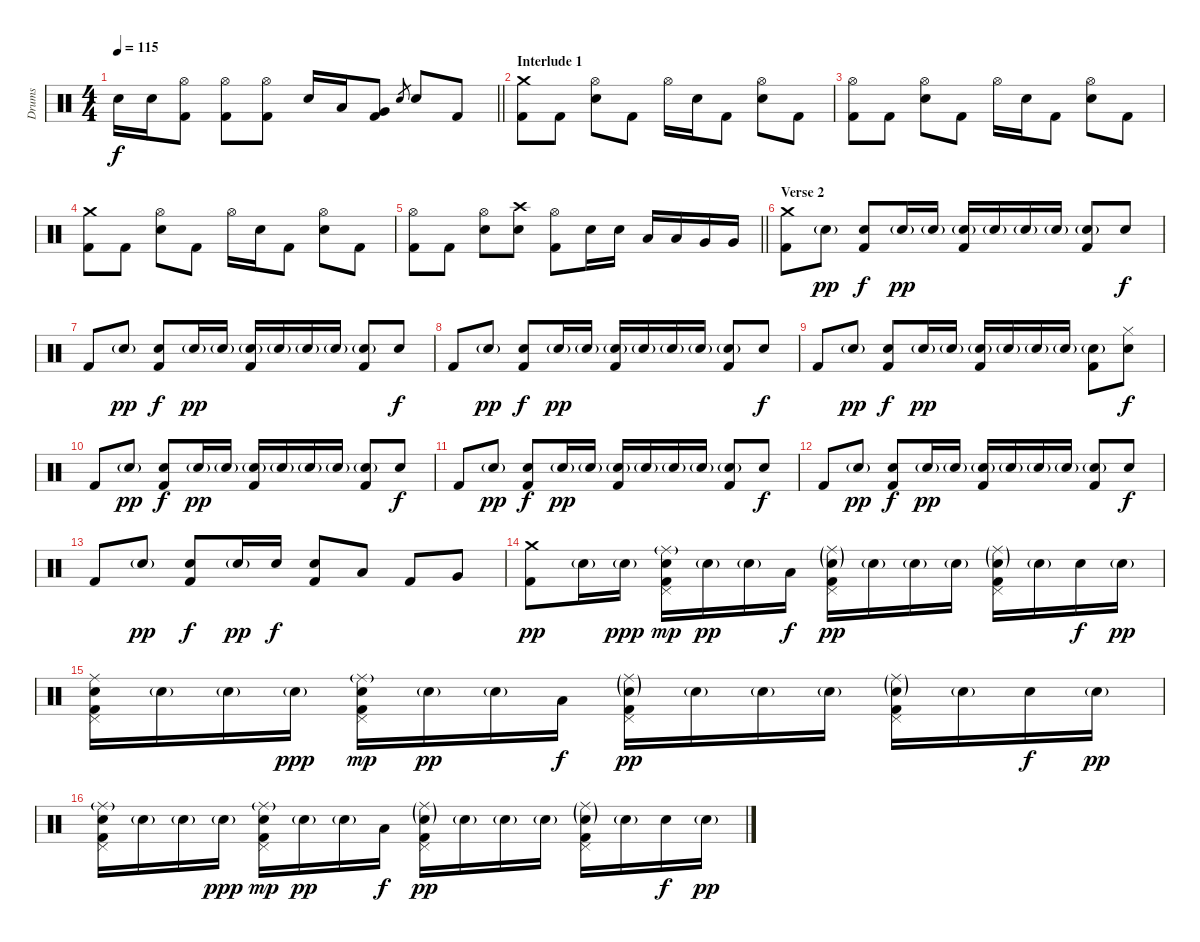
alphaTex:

\track ("Drums" "Drums") {instrument percussion}
\staff {score}
\articulation defaults
\ts (4 4)
\tempo 115
\clef neutral
\barLineRight lightlight
\ks c "Electric Snare (hit)".16{dy f} "Electric Snare (hit)".16
("Hi-Hat (open)" "Kick (hit) 2").8 ("Hi-Hat (open)" "Kick (hit) 2").8 ("Hi-Hat (open)" "Kick (hit) 2").8 "Electric Snare (hit)".16 "Low Tom (hit)".16 ("Very Low Tom (hit)" "Kick (hit) 2").8 "Electric Snare (hit)".8{gr} "Electric Snare (hit)".8 "Kick (hit) 2".8 |
\section ("" "Interlude 1")
("Crash medium (hit)" "Kick (hit) 2").8 "Kick (hit) 2".8 ("Hi-Hat (open)" "Electric Snare (hit)").8 "Kick (hit) 2".8 "Hi-Hat (open)".16 "Electric Snare (hit)".16 "Kick (hit) 2".8 ("Hi-Hat (open)" "Electric Snare (hit)").8 "Kick (hit) 2".8 |
("Hi-Hat (open)" "Kick (hit) 2").8 "Kick (hit) 2".8 ("Hi-Hat (open)" "Electric Snare (hit)").8 "Kick (hit) 2".8 "Hi-Hat (open)".16 "Electric Snare (hit)".16 "Kick (hit) 2".8 ("Hi-Hat (open)" "Electric Snare (hit)").8 "Kick (hit) 2".8 |
("Crash medium (hit)" "Kick (hit) 2").8 "Kick (hit) 2".8 ("Hi-Hat (open)" "Electric Snare (hit)").8 "Kick (hit) 2".8 "Hi-Hat (open)".16 "Electric Snare (hit)".16 "Kick (hit) 2".8 ("Hi-Hat (open)" "Electric Snare (hit)").8 "Kick (hit) 2".8 |
\barLineRight lightlight
("Hi-Hat (open)" "Kick (hit) 2").8 "Kick (hit) 2".8 ("Hi-Hat (open)" "Electric Snare (hit)").8 ("Crash high (hit)" "Electric Snare (hit)").8 ("Hi-Hat (open)" "Kick (hit) 2").8 "Electric Snare (hit)".16 "Electric Snare (hit)".16 "Low Tom (hit)".16 "Low Tom (hit)".16 "Very Low Tom (hit)".16 "Very Low Tom (hit)".16 |
\section ("" "Verse 2")
("Crash medium (hit)" "Kick (hit) 2").8 "Electric Snare (hit)"{g}.8{dy pp} ("Electric Snare (hit)" "Kick (hit) 2").8{dy f} "Electric Snare (hit)"{g}.16{dy pp} "Electric Snare (hit)"{g}.16 ("Electric Snare (hit)"{g} "Kick (hit) 2").16 "Electric Snare (hit)"{g}.16 "Electric Snare (hit)"{g}.16 "Electric Snare (hit)"{g}.16 ("Electric Snare (hit)"{g} "Kick (hit) 2").8 "Electric Snare (hit)".8{dy f} |
"Kick (hit) 2".8 "Electric Snare (hit)"{g}.8{dy pp} ("Electric Snare (hit)" "Kick (hit) 2").8{dy f} "Electric Snare (hit)"{g}.16{dy pp} "Electric Snare (hit)"{g}.16 ("Electric Snare (hit)"{g} "Kick (hit) 2").16 "Electric Snare (hit)"{g}.16 "Electric Snare (hit)"{g}.16 "Electric Snare (hit)"{g}.16 ("Electric Snare (hit)"{g} "Kick (hit) 2").8 "Electric Snare (hit)".8{dy f} |
"Kick (hit) 2".8 "Electric Snare (hit)"{g}.8{dy pp} ("Electric Snare (hit)" "Kick (hit) 2").8{dy f} "Electric Snare (hit)"{g}.16{dy pp} "Electric Snare (hit)"{g}.16 ("Electric Snare (hit)"{g} "Kick (hit) 2").16 "Electric Snare (hit)"{g}.16 "Electric Snare (hit)"{g}.16 "Electric Snare (hit)"{g}.16 ("Electric Snare (hit)"{g} "Kick (hit) 2").8 "Electric Snare (hit)".8{dy f} |
"Kick (hit) 2".8 "Electric Snare (hit)"{g}.8{dy pp} ("Electric Snare (hit)" "Kick (hit) 2").8{dy f} "Electric Snare (hit)"{g}.16{dy pp} "Electric Snare (hit)"{g}.16 ("Electric Snare (hit)"{g} "Kick (hit) 2").16 "Electric Snare (hit)"{g}.16 "Electric Snare (hit)"{g}.16 "Electric Snare (hit)"{g}.16 ("Electric Snare (hit)"{g} "Kick (hit) 2").8 ("Hi-Hat (closed)" "Electric Snare (hit)").8{dy f} |
"Kick (hit) 2".8 "Electric Snare (hit)"{g}.8{dy pp} ("Electric Snare (hit)" "Kick (hit) 2").8{dy f} "Electric Snare (hit)"{g}.16{dy pp} "Electric Snare (hit)"{g}.16 ("Electric Snare (hit)"{g} "Kick (hit) 2").16 "Electric Snare (hit)"{g}.16 "Electric Snare (hit)"{g}.16 "Electric Snare (hit)"{g}.16 ("Electric Snare (hit)"{g} "Kick (hit) 2").8 "Electric Snare (hit)".8{dy f} |
"Kick (hit) 2".8 "Electric Snare (hit)"{g}.8{dy pp} ("Electric Snare (hit)" "Kick (hit) 2").8{dy f} "Electric Snare (hit)"{g}.16{dy pp} "Electric Snare (hit)"{g}.16 ("Electric Snare (hit)"{g} "Kick (hit) 2").16 "Electric Snare (hit)"{g}.16 "Electric Snare (hit)"{g}.16 "Electric Snare (hit)"{g}.16 ("Electric Snare (hit)"{g} "Kick (hit) 2").8 "Electric Snare (hit)".8{dy f} |
"Kick (hit) 2".8 "Electric Snare (hit)"{g}.8{dy pp} ("Electric Snare (hit)" "Kick (hit) 2").8{dy f} "Electric Snare (hit)"{g}.16{dy pp} "Electric Snare (hit)"{g}.16 ("Electric Snare (hit)"{g} "Kick (hit) 2").16 "Electric Snare (hit)"{g}.16 "Electric Snare (hit)"{g}.16 "Electric Snare (hit)"{g}.16 ("Electric Snare (hit)"{g} "Kick (hit) 2").8 "Electric Snare (hit)".8{dy f} |
"Kick (hit) 2".8 "Electric Snare (hit)"{g}.8{dy pp} ("Electric Snare (hit)" "Kick (hit) 2").8{dy f} "Electric Snare (hit)"{g}.16{dy pp} "Electric Snare (hit)".16{dy f} ("Electric Snare (hit)" "Kick (hit) 2").8 "Low Tom (hit)".8 "Kick (hit) 2".8 "Very Low Tom (hit)".8 |
("Crash medium (hit)" "Kick (hit) 2").8{dy pp} "Electric Snare (hit)"{g}.16 "Electric Snare (hit)"{g}.16{dy ppp} ("Pedal Hi-Hat (hit)" "Ride (middle)"{g} "Electric Snare (hit)" "Kick (hit) 2").16{dy mp} "Electric Snare (hit)"{g}.16{dy pp} "Electric Snare (hit)"{g}.16 "Low Tom (hit)".16{dy f} ("Pedal Hi-Hat (hit)" "Ride (middle)"{g} "Electric Snare (hit)"{g} "Kick (hit) 2").16{dy pp} "Electric Snare (hit)"{g}.16 "Electric Snare (hit)"{g}.16 "Electric Snare (hit)"{g}.16 ("Pedal Hi-Hat (hit)" "Ride (middle)"{g} "Electric Snare (hit)"{g} "Kick (hit) 2").16 "Electric Snare (hit)"{g}.16 "Electric Snare (hit)".16{dy f} "Electric Snare (hit)"{g}.16{dy pp} |
("Pedal Hi-Hat (hit)" "Ride (middle)" "Electric Snare (hit)" "Kick (hit) 2").16 "Electric Snare (hit)"{g}.16 "Electric Snare (hit)"{g}.16 "Electric Snare (hit)"{g}.16{dy ppp} ("Pedal Hi-Hat (hit)" "Ride (middle)"{g} "Electric Snare (hit)" "Kick (hit) 2").16{dy mp} "Electric Snare (hit)"{g}.16{dy pp} "Electric Snare (hit)"{g}.16 "Low Tom (hit)".16{dy f} ("Pedal Hi-Hat (hit)" "Ride (middle)"{g} "Electric Snare (hit)"{g} "Kick (hit) 2").16{dy pp} "Electric Snare (hit)"{g}.16 "Electric Snare (hit)"{g}.16 "Electric Snare (hit)"{g}.16 ("Pedal Hi-Hat (hit)" "Ride (middle)"{g} "Electric Snare (hit)"{g} "Kick (hit) 2").16 "Electric Snare (hit)"{g}.16 "Electric Snare (hit)".16{dy f} "Electric Snare (hit)"{g}.16{dy pp} |
("Pedal Hi-Hat (hit)" "Ride (middle)"{g} "Electric Snare (hit)" "Kick (hit) 2").16 "Electric Snare (hit)"{g}.16 "Electric Snare (hit)"{g}.16 "Electric Snare (hit)"{g}.16{dy ppp} ("Pedal Hi-Hat (hit)" "Ride (middle)"{g} "Electric Snare (hit)" "Kick (hit) 2").16{dy mp} "Electric Snare (hit)"{g}.16{dy pp} "Electric Snare (hit)"{g}.16 "Low Tom (hit)".16{dy f} ("Pedal Hi-Hat (hit)" "Ride (middle)"{g} "Electric Snare (hit)"{g} "Kick (hit) 2").16{dy pp} "Electric Snare (hit)"{g}.16 "Electric Snare (hit)"{g}.16 "Electric Snare (hit)"{g}.16 ("Pedal Hi-Hat (hit)" "Ride (middle)"{g} "Electric Snare (hit)"{g} "Kick (hit) 2").16 "Electric Snare (hit)"{g}.16 "Electric Snare (hit)".16{dy f} "Electric Snare (hit)"{g}.16{dy pp}
